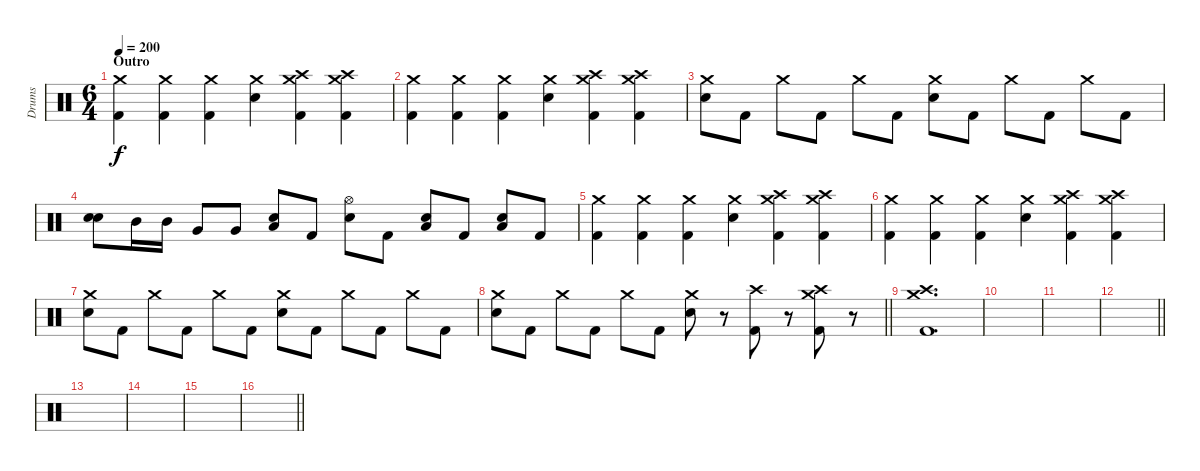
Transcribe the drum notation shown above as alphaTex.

\track ("Drums" "Drums") {instrument percussion}
\staff {score}
\articulation defaults
\ts (6 4)
\section ("" "Outro")
\tempo 200
\clef neutral
\ks c
("Crash medium (hit)" "Kick (hit) 2").4{dy f} ("Crash medium (hit)" "Kick (hit) 2").4 ("Crash medium (hit)" "Kick (hit) 2").4 ("Crash medium (hit)" "Electric Snare (hit)").4 ("Crash medium (hit)" "Crash high (hit)" "Kick (hit) 2").4 ("Crash medium (hit)" "Crash high (hit)" "Kick (hit) 2").4 |
("Crash medium (hit)" "Kick (hit) 2").4 ("Crash medium (hit)" "Kick (hit) 2").4 ("Crash medium (hit)" "Kick (hit) 2").4 ("Crash medium (hit)" "Electric Snare (hit)").4 ("Crash medium (hit)" "Crash high (hit)" "Kick (hit) 2").4 ("Crash medium (hit)" "Crash high (hit)" "Kick (hit) 2").4 |
("Crash medium (hit)" "Electric Snare (hit)").8 "Kick (hit) 2".8 "Crash medium (hit)".8 "Kick (hit) 2".8 "Crash medium (hit)".8 "Kick (hit) 2".8 ("Crash medium (hit)" "Electric Snare (hit)").8 "Kick (hit) 2".8 "Crash medium (hit)".8 "Kick (hit) 2".8 "Crash medium (hit)".8 "Kick (hit) 2".8 |
("Electric Snare (hit)" "Electric Snare (hit)").8 "Mid Tom (hit)".16 "Mid Tom (hit)".16 "Very Low Tom (hit)".8 "Very Low Tom (hit)".8 ("Low Floor Tom (hit)" "Electric Snare (hit)").8 "Kick (hit) 2".8 ("Hi-Hat (open)" "Electric Snare (hit)").8 "Kick (hit) 2".8 ("Low Floor Tom (hit)" "Electric Snare (hit)").8 "Kick (hit) 2".8 ("Low Floor Tom (hit)" "Electric Snare (hit)").8 "Kick (hit) 2".8 |
("Crash medium (hit)" "Kick (hit) 2").4 ("Crash medium (hit)" "Kick (hit) 2").4 ("Crash medium (hit)" "Kick (hit) 2").4 ("Crash medium (hit)" "Electric Snare (hit)").4 ("Crash medium (hit)" "Crash high (hit)" "Kick (hit) 2").4 ("Crash medium (hit)" "Crash high (hit)" "Kick (hit) 2").4 |
("Crash medium (hit)" "Kick (hit) 2").4 ("Crash medium (hit)" "Kick (hit) 2").4 ("Crash medium (hit)" "Kick (hit) 2").4 ("Crash medium (hit)" "Electric Snare (hit)").4 ("Crash medium (hit)" "Crash high (hit)" "Kick (hit) 2").4 ("Crash medium (hit)" "Crash high (hit)" "Kick (hit) 2").4 |
("Crash medium (hit)" "Electric Snare (hit)").8 "Kick (hit) 2".8 "Crash medium (hit)".8 "Kick (hit) 2".8 "Crash medium (hit)".8 "Kick (hit) 2".8 ("Crash medium (hit)" "Electric Snare (hit)").8 "Kick (hit) 2".8 "Crash medium (hit)".8 "Kick (hit) 2".8 "Crash medium (hit)".8 "Kick (hit) 2".8 |
\barLineRight lightlight
("Crash medium (hit)" "Electric Snare (hit)").8 "Kick (hit) 2".8 "Crash medium (hit)".8 "Kick (hit) 2".8 "Crash medium (hit)".8 "Kick (hit) 2".8 ("Crash medium (hit)" "Electric Snare (hit)").8 r.8 ("Crash high (hit)" "Kick (hit) 2").8 r.8 ("Crash medium (hit)" "Crash high (hit)" "Kick (hit) 2").8 r.8 |
("Crash high (hit)" "Crash medium (hit)" "Kick (hit) 2").1{d} |
|
|
\barLineRight lightlight
|
|
|
|
\barLineRight lightlight
